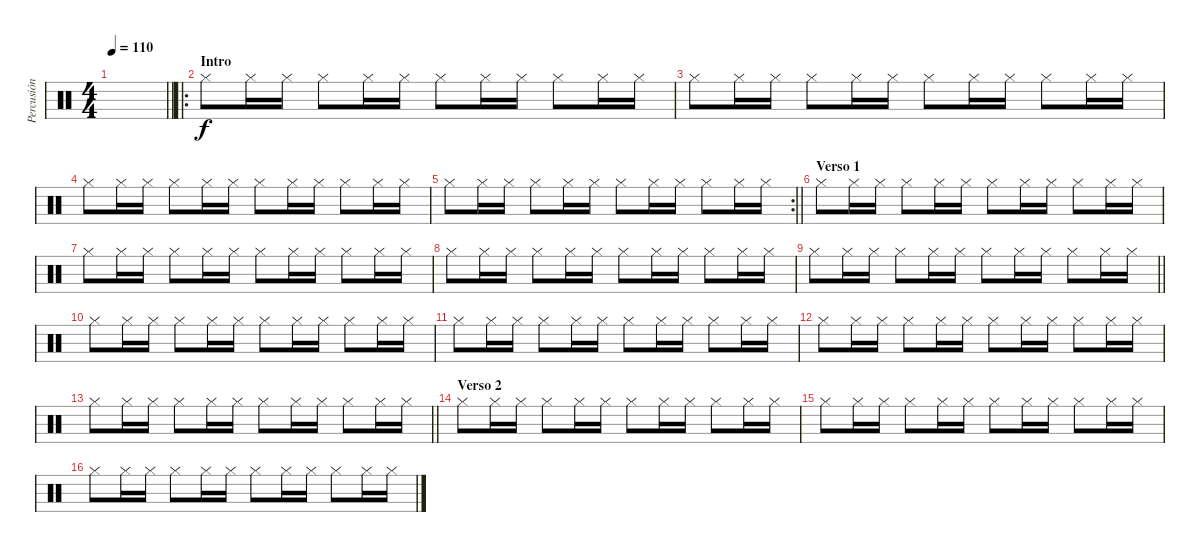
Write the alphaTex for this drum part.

\track ("Percusión" "Percusión") {instrument percussion}
\staff {score}
\articulation defaults
\ts (4 4)
\tempo 110
\clef neutral
\barLineRight lightlight
\ks c
|
\ro
\section ("" "Intro")
"Hi-Hat (closed)".8{volume 7} "Hi-Hat (closed)".16 "Hi-Hat (closed)".16 "Hi-Hat (closed)".8 "Hi-Hat (closed)".16 "Hi-Hat (closed)".16 "Hi-Hat (closed)".8 "Hi-Hat (closed)".16 "Hi-Hat (closed)".16 "Hi-Hat (closed)".8 "Hi-Hat (closed)".16 "Hi-Hat (closed)".16 |
"Hi-Hat (closed)".8 "Hi-Hat (closed)".16 "Hi-Hat (closed)".16 "Hi-Hat (closed)".8 "Hi-Hat (closed)".16 "Hi-Hat (closed)".16 "Hi-Hat (closed)".8 "Hi-Hat (closed)".16 "Hi-Hat (closed)".16 "Hi-Hat (closed)".8 "Hi-Hat (closed)".16 "Hi-Hat (closed)".16 |
"Hi-Hat (closed)".8 "Hi-Hat (closed)".16 "Hi-Hat (closed)".16 "Hi-Hat (closed)".8 "Hi-Hat (closed)".16 "Hi-Hat (closed)".16 "Hi-Hat (closed)".8 "Hi-Hat (closed)".16 "Hi-Hat (closed)".16 "Hi-Hat (closed)".8 "Hi-Hat (closed)".16 "Hi-Hat (closed)".16 |
\rc 2
\barLineRight lightlight "Hi-Hat (closed)".8 "Hi-Hat (closed)".16 "Hi-Hat (closed)".16 "Hi-Hat (closed)".8 "Hi-Hat (closed)".16 "Hi-Hat (closed)".16 "Hi-Hat (closed)".8 "Hi-Hat (closed)".16 "Hi-Hat (closed)".16 "Hi-Hat (closed)".8 "Hi-Hat (closed)".16 "Hi-Hat (closed)".16
|
\section ("" "Verso 1")
"Hi-Hat (closed)".8 "Hi-Hat (closed)".16 "Hi-Hat (closed)".16 "Hi-Hat (closed)".8 "Hi-Hat (closed)".16 "Hi-Hat (closed)".16 "Hi-Hat (closed)".8 "Hi-Hat (closed)".16 "Hi-Hat (closed)".16 "Hi-Hat (closed)".8 "Hi-Hat (closed)".16 "Hi-Hat (closed)".16 |
"Hi-Hat (closed)".8 "Hi-Hat (closed)".16 "Hi-Hat (closed)".16 "Hi-Hat (closed)".8 "Hi-Hat (closed)".16 "Hi-Hat (closed)".16 "Hi-Hat (closed)".8 "Hi-Hat (closed)".16 "Hi-Hat (closed)".16 "Hi-Hat (closed)".8 "Hi-Hat (closed)".16 "Hi-Hat (closed)".16 |
"Hi-Hat (closed)".8 "Hi-Hat (closed)".16 "Hi-Hat (closed)".16 "Hi-Hat (closed)".8 "Hi-Hat (closed)".16 "Hi-Hat (closed)".16 "Hi-Hat (closed)".8 "Hi-Hat (closed)".16 "Hi-Hat (closed)".16 "Hi-Hat (closed)".8 "Hi-Hat (closed)".16 "Hi-Hat (closed)".16 |
\barLineRight lightlight "Hi-Hat (closed)".8 "Hi-Hat (closed)".16 "Hi-Hat (closed)".16 "Hi-Hat (closed)".8 "Hi-Hat (closed)".16 "Hi-Hat (closed)".16 "Hi-Hat (closed)".8 "Hi-Hat (closed)".16 "Hi-Hat (closed)".16 "Hi-Hat (closed)".8 "Hi-Hat (closed)".16 "Hi-Hat (closed)".16
|
"Hi-Hat (closed)".8 "Hi-Hat (closed)".16 "Hi-Hat (closed)".16 "Hi-Hat (closed)".8 "Hi-Hat (closed)".16 "Hi-Hat (closed)".16 "Hi-Hat (closed)".8 "Hi-Hat (closed)".16 "Hi-Hat (closed)".16 "Hi-Hat (closed)".8 "Hi-Hat (closed)".16 "Hi-Hat (closed)".16 |
"Hi-Hat (closed)".8 "Hi-Hat (closed)".16 "Hi-Hat (closed)".16 "Hi-Hat (closed)".8 "Hi-Hat (closed)".16 "Hi-Hat (closed)".16 "Hi-Hat (closed)".8 "Hi-Hat (closed)".16 "Hi-Hat (closed)".16 "Hi-Hat (closed)".8 "Hi-Hat (closed)".16 "Hi-Hat (closed)".16 |
"Hi-Hat (closed)".8 "Hi-Hat (closed)".16 "Hi-Hat (closed)".16 "Hi-Hat (closed)".8 "Hi-Hat (closed)".16 "Hi-Hat (closed)".16 "Hi-Hat (closed)".8 "Hi-Hat (closed)".16 "Hi-Hat (closed)".16 "Hi-Hat (closed)".8 "Hi-Hat (closed)".16 "Hi-Hat (closed)".16 |
\barLineRight lightlight "Hi-Hat (closed)".8 "Hi-Hat (closed)".16 "Hi-Hat (closed)".16 "Hi-Hat (closed)".8 "Hi-Hat (closed)".16 "Hi-Hat (closed)".16 "Hi-Hat (closed)".8 "Hi-Hat (closed)".16 "Hi-Hat (closed)".16 "Hi-Hat (closed)".8 "Hi-Hat (closed)".16 "Hi-Hat (closed)".16
|
\section ("" "Verso 2")
"Hi-Hat (closed)".8 "Hi-Hat (closed)".16 "Hi-Hat (closed)".16 "Hi-Hat (closed)".8 "Hi-Hat (closed)".16 "Hi-Hat (closed)".16 "Hi-Hat (closed)".8 "Hi-Hat (closed)".16 "Hi-Hat (closed)".16 "Hi-Hat (closed)".8 "Hi-Hat (closed)".16 "Hi-Hat (closed)".16 |
"Hi-Hat (closed)".8 "Hi-Hat (closed)".16 "Hi-Hat (closed)".16 "Hi-Hat (closed)".8 "Hi-Hat (closed)".16 "Hi-Hat (closed)".16 "Hi-Hat (closed)".8 "Hi-Hat (closed)".16 "Hi-Hat (closed)".16 "Hi-Hat (closed)".8 "Hi-Hat (closed)".16 "Hi-Hat (closed)".16 |
"Hi-Hat (closed)".8 "Hi-Hat (closed)".16 "Hi-Hat (closed)".16 "Hi-Hat (closed)".8 "Hi-Hat (closed)".16 "Hi-Hat (closed)".16 "Hi-Hat (closed)".8 "Hi-Hat (closed)".16 "Hi-Hat (closed)".16 "Hi-Hat (closed)".8 "Hi-Hat (closed)".16 "Hi-Hat (closed)".16
